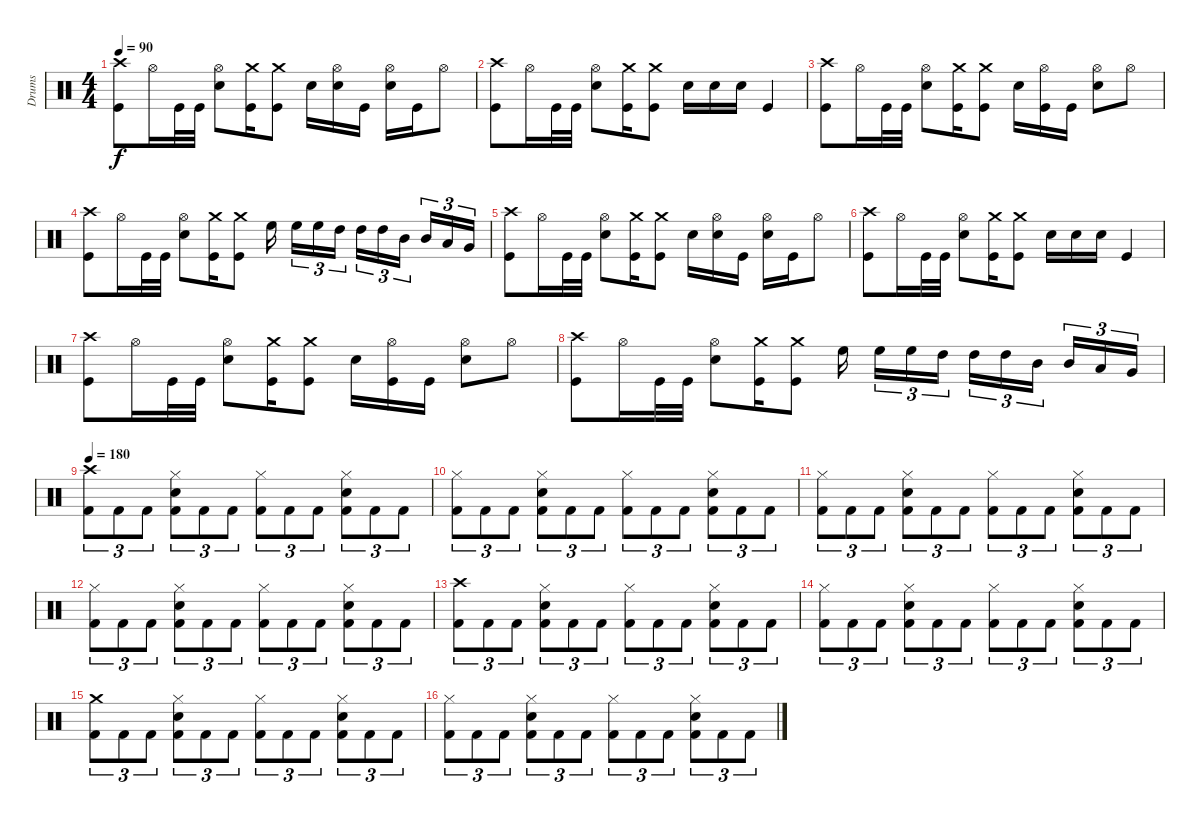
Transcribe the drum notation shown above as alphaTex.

\track ("Drums" "Drums") {instrument percussion}
\staff {score}
\articulation defaults
\ts (4 4)
\tempo 90
\clef neutral
\ks c
("Crash high (hit)" "Kick (hit)").8{dy f} "Hi-Hat (open)".16 "Kick (hit)".32 "Kick (hit)".32 ("Hi-Hat (open)" "Electric Snare (hit)").8 ("Crash medium (hit)" "Kick (hit)").16 ("Crash medium (hit)" "Kick (hit)").8 "Electric Snare (hit)".16 ("Hi-Hat (open)" "Electric Snare (hit)").16 "Kick (hit)".16 ("Hi-Hat (open)" "Electric Snare (hit)").16 "Kick (hit)".16 "Hi-Hat (open)".8 |
("Crash high (hit)" "Kick (hit)").8 "Hi-Hat (open)".16 "Kick (hit)".32 "Kick (hit)".32 ("Hi-Hat (open)" "Electric Snare (hit)").8 ("Crash medium (hit)" "Kick (hit)").16 ("Crash medium (hit)" "Kick (hit)").8 "Electric Snare (hit)".16 "Electric Snare (hit)".16 "Electric Snare (hit)".16 "Kick (hit)".4 |
("Crash high (hit)" "Kick (hit)").8 "Hi-Hat (open)".16 "Kick (hit)".32 "Kick (hit)".32 ("Hi-Hat (open)" "Electric Snare (hit)").8 ("Crash medium (hit)" "Kick (hit)").16 ("Crash medium (hit)" "Kick (hit)").8 "Electric Snare (hit)".16 ("Hi-Hat (open)" "Kick (hit)").16 "Kick (hit)".16 ("Hi-Hat (open)" "Electric Snare (hit)").8 "Hi-Hat (open)".8 |
("Crash high (hit)" "Kick (hit)").8 "Hi-Hat (open)".16 "Kick (hit)".32 "Kick (hit)".32 ("Hi-Hat (open)" "Electric Snare (hit)").8 ("Crash medium (hit)" "Kick (hit)").16 ("Crash medium (hit)" "Kick (hit)").8 "High Floor Tom (hit)".16 "High Floor Tom (hit)".16{tu (3 2)} "High Floor Tom (hit)".16{tu (3 2)} "High Tom (hit)".16{tu (3 2)} "High Tom (hit)".16{tu (3 2)} "High Tom (hit)".16{tu (3 2)} "Mid Tom (hit)".16{tu (3 2)} "Mid Tom (hit)".16{tu (3 2)} "Low Tom (hit)".16{tu (3 2)} "Very Low Tom (hit)".16{tu (3 2)} |
("Crash high (hit)" "Kick (hit)").8 "Hi-Hat (open)".16 "Kick (hit)".32 "Kick (hit)".32 ("Hi-Hat (open)" "Electric Snare (hit)").8 ("Crash medium (hit)" "Kick (hit)").16 ("Crash medium (hit)" "Kick (hit)").8 "Electric Snare (hit)".16 ("Hi-Hat (open)" "Electric Snare (hit)").16 "Kick (hit)".16 ("Hi-Hat (open)" "Electric Snare (hit)").16 "Kick (hit)".16 "Hi-Hat (open)".8 |
("Crash high (hit)" "Kick (hit)").8 "Hi-Hat (open)".16 "Kick (hit)".32 "Kick (hit)".32 ("Hi-Hat (open)" "Electric Snare (hit)").8 ("Crash medium (hit)" "Kick (hit)").16 ("Crash medium (hit)" "Kick (hit)").8 "Electric Snare (hit)".16 "Electric Snare (hit)".16 "Electric Snare (hit)".16 "Kick (hit)".4 |
("Crash high (hit)" "Kick (hit)").8 "Hi-Hat (open)".16 "Kick (hit)".32 "Kick (hit)".32 ("Hi-Hat (open)" "Electric Snare (hit)").8 ("Crash medium (hit)" "Kick (hit)").16 ("Crash medium (hit)" "Kick (hit)").8 "Electric Snare (hit)".16 ("Hi-Hat (open)" "Kick (hit)").16 "Kick (hit)".16 ("Hi-Hat (open)" "Electric Snare (hit)").8 "Hi-Hat (open)".8 |
("Crash high (hit)" "Kick (hit)").8 "Hi-Hat (open)".16 "Kick (hit)".32 "Kick (hit)".32 ("Hi-Hat (open)" "Electric Snare (hit)").8 ("Crash medium (hit)" "Kick (hit)").16 ("Crash medium (hit)" "Kick (hit)").8 "High Floor Tom (hit)".16 "High Floor Tom (hit)".16{tu (3 2)} "High Floor Tom (hit)".16{tu (3 2)} "High Tom (hit)".16{tu (3 2)} "High Tom (hit)".16{tu (3 2)} "High Tom (hit)".16{tu (3 2)} "Mid Tom (hit)".16{tu (3 2)} "Mid Tom (hit)".16{tu (3 2)} "Low Tom (hit)".16{tu (3 2)} "Very Low Tom (hit)".16{tu (3 2)} |
\tempo 180
("Crash high (hit)" "Kick (hit) 2").8{tu (3 2)} "Kick (hit) 2".8{tu (3 2)} "Kick (hit) 2".8{tu (3 2)} ("Hi-Hat (closed)" "Electric Snare (hit)" "Kick (hit) 2").8{tu (3 2)} "Kick (hit) 2".8{tu (3 2)} "Kick (hit) 2".8{tu (3 2)} ("Hi-Hat (closed)" "Kick (hit) 2").8{tu (3 2)} "Kick (hit) 2".8{tu (3 2)} "Kick (hit) 2".8{tu (3 2)} ("Hi-Hat (closed)" "Electric Snare (hit)" "Kick (hit) 2").8{tu (3 2)} "Kick (hit) 2".8{tu (3 2)} "Kick (hit) 2".8{tu (3 2)} |
("Hi-Hat (closed)" "Kick (hit) 2").8{tu (3 2)} "Kick (hit) 2".8{tu (3 2)} "Kick (hit) 2".8{tu (3 2)} ("Hi-Hat (closed)" "Electric Snare (hit)" "Kick (hit) 2").8{tu (3 2)} "Kick (hit) 2".8{tu (3 2)} "Kick (hit) 2".8{tu (3 2)} ("Hi-Hat (closed)" "Kick (hit) 2").8{tu (3 2)} "Kick (hit) 2".8{tu (3 2)} "Kick (hit) 2".8{tu (3 2)} ("Hi-Hat (closed)" "Electric Snare (hit)" "Kick (hit) 2").8{tu (3 2)} "Kick (hit) 2".8{tu (3 2)} "Kick (hit) 2".8{tu (3 2)} |
("Hi-Hat (closed)" "Kick (hit) 2").8{tu (3 2)} "Kick (hit) 2".8{tu (3 2)} "Kick (hit) 2".8{tu (3 2)} ("Hi-Hat (closed)" "Electric Snare (hit)" "Kick (hit) 2").8{tu (3 2)} "Kick (hit) 2".8{tu (3 2)} "Kick (hit) 2".8{tu (3 2)} ("Hi-Hat (closed)" "Kick (hit) 2").8{tu (3 2)} "Kick (hit) 2".8{tu (3 2)} "Kick (hit) 2".8{tu (3 2)} ("Hi-Hat (closed)" "Electric Snare (hit)" "Kick (hit) 2").8{tu (3 2)} "Kick (hit) 2".8{tu (3 2)} "Kick (hit) 2".8{tu (3 2)} |
("Hi-Hat (closed)" "Kick (hit) 2").8{tu (3 2)} "Kick (hit) 2".8{tu (3 2)} "Kick (hit) 2".8{tu (3 2)} ("Hi-Hat (closed)" "Electric Snare (hit)" "Kick (hit) 2").8{tu (3 2)} "Kick (hit) 2".8{tu (3 2)} "Kick (hit) 2".8{tu (3 2)} ("Hi-Hat (closed)" "Kick (hit) 2").8{tu (3 2)} "Kick (hit) 2".8{tu (3 2)} "Kick (hit) 2".8{tu (3 2)} ("Hi-Hat (closed)" "Electric Snare (hit)" "Kick (hit) 2").8{tu (3 2)} "Kick (hit) 2".8{tu (3 2)} "Kick (hit) 2".8{tu (3 2)} |
("Crash high (hit)" "Kick (hit) 2").8{tu (3 2)} "Kick (hit) 2".8{tu (3 2)} "Kick (hit) 2".8{tu (3 2)} ("Hi-Hat (closed)" "Electric Snare (hit)" "Kick (hit) 2").8{tu (3 2)} "Kick (hit) 2".8{tu (3 2)} "Kick (hit) 2".8{tu (3 2)} ("Hi-Hat (closed)" "Kick (hit) 2").8{tu (3 2)} "Kick (hit) 2".8{tu (3 2)} "Kick (hit) 2".8{tu (3 2)} ("Hi-Hat (closed)" "Electric Snare (hit)" "Kick (hit) 2").8{tu (3 2)} "Kick (hit) 2".8{tu (3 2)} "Kick (hit) 2".8{tu (3 2)} |
("Hi-Hat (closed)" "Kick (hit) 2").8{tu (3 2)} "Kick (hit) 2".8{tu (3 2)} "Kick (hit) 2".8{tu (3 2)} ("Hi-Hat (closed)" "Electric Snare (hit)" "Kick (hit) 2").8{tu (3 2)} "Kick (hit) 2".8{tu (3 2)} "Kick (hit) 2".8{tu (3 2)} ("Hi-Hat (closed)" "Kick (hit) 2").8{tu (3 2)} "Kick (hit) 2".8{tu (3 2)} "Kick (hit) 2".8{tu (3 2)} ("Hi-Hat (closed)" "Electric Snare (hit)" "Kick (hit) 2").8{tu (3 2)} "Kick (hit) 2".8{tu (3 2)} "Kick (hit) 2".8{tu (3 2)} |
("Crash medium (hit)" "Kick (hit) 2").8{tu (3 2)} "Kick (hit) 2".8{tu (3 2)} "Kick (hit) 2".8{tu (3 2)} ("Hi-Hat (closed)" "Electric Snare (hit)" "Kick (hit) 2").8{tu (3 2)} "Kick (hit) 2".8{tu (3 2)} "Kick (hit) 2".8{tu (3 2)} ("Hi-Hat (closed)" "Kick (hit) 2").8{tu (3 2)} "Kick (hit) 2".8{tu (3 2)} "Kick (hit) 2".8{tu (3 2)} ("Hi-Hat (closed)" "Electric Snare (hit)" "Kick (hit) 2").8{tu (3 2)} "Kick (hit) 2".8{tu (3 2)} "Kick (hit) 2".8{tu (3 2)} |
("Hi-Hat (closed)" "Kick (hit) 2").8{tu (3 2)} "Kick (hit) 2".8{tu (3 2)} "Kick (hit) 2".8{tu (3 2)} ("Hi-Hat (closed)" "Electric Snare (hit)" "Kick (hit) 2").8{tu (3 2)} "Kick (hit) 2".8{tu (3 2)} "Kick (hit) 2".8{tu (3 2)} ("Hi-Hat (closed)" "Kick (hit) 2").8{tu (3 2)} "Kick (hit) 2".8{tu (3 2)} "Kick (hit) 2".8{tu (3 2)} ("Hi-Hat (closed)" "Electric Snare (hit)" "Kick (hit) 2").8{tu (3 2)} "Kick (hit) 2".8{tu (3 2)} "Kick (hit) 2".8{tu (3 2)}
